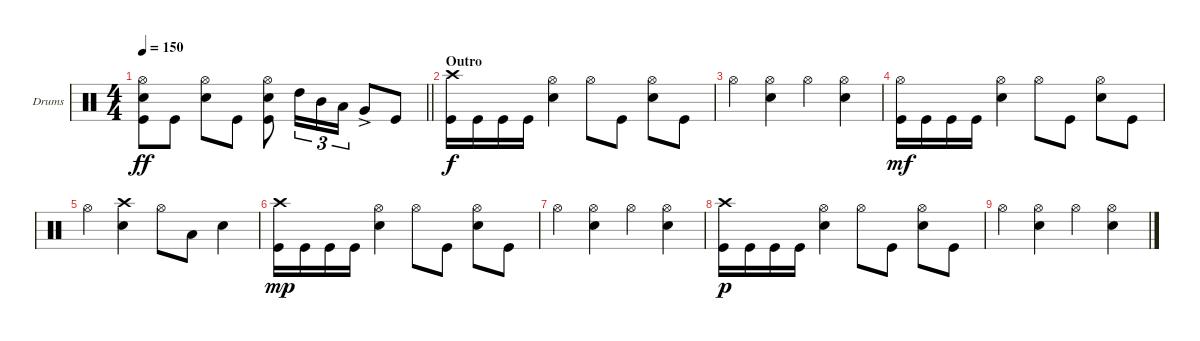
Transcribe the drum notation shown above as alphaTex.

\bracketExtendMode groupsimilarinstruments
\firstSystemTrackNameOrientation horizontal
\otherSystemsTrackNameOrientation horizontal
\track ("Drumkit" "Drums") {instrument percussion}
\staff {score}
\articulation defaults
\ts (4 4)
\tempo 150
\clef neutral
\barLineRight lightlight
\ks c
("Hi-Hat (open)" "Snare (hit) 2" "Kick (hit)").8{dy ff} "Kick (hit)".8 ("Hi-Hat (open)" "Snare (hit) 2").8 "Kick (hit)".8 ("Hi-Hat (open)" "Snare (hit) 2" "Kick (hit)").8 "High Tom (hit)".16{tu (3 2)} "Mid Tom (hit)".16{tu (3 2)} "Low Tom (hit)".16{tu (3 2)} "Very Low Tom (hit)"{ac}.8 "Kick (hit)".8 |
\section ("" "Outro")
("Crash high (hit)" "Kick (hit)").16{dy f} "Kick (hit)".16 "Kick (hit)".16 "Kick (hit)".16 ("Hi-Hat (open)" "Snare (hit) 2").4 "Hi-Hat (open)".8 "Kick (hit)".8 ("Hi-Hat (open)" "Snare (hit) 2").8 "Kick (hit)".8 |
"Hi-Hat (open)".4 ("Hi-Hat (open)" "Snare (hit) 2").4 "Hi-Hat (open)".4 ("Hi-Hat (open)" "Snare (hit) 2").4 |
("Hi-Hat (open)" "Kick (hit)").16{dy mf} "Kick (hit)".16 "Kick (hit)".16 "Kick (hit)".16 ("Hi-Hat (open)" "Snare (hit) 2").4 "Hi-Hat (open)".8 "Kick (hit)".8 ("Hi-Hat (open)" "Snare (hit) 2").8 "Kick (hit)".8 |
"Hi-Hat (open)".4 ("Crash high (hit)" "Snare (hit) 2").4 "Hi-Hat (open)".8 "Low Tom (hit)".8 "Snare (hit) 2".4 |
("Crash high (hit)" "Kick (hit)").16{dy mp} "Kick (hit)".16 "Kick (hit)".16 "Kick (hit)".16 ("Hi-Hat (open)" "Snare (hit) 2").4 "Hi-Hat (open)".8 "Kick (hit)".8 ("Hi-Hat (open)" "Snare (hit) 2").8 "Kick (hit)".8 |
"Hi-Hat (open)".4 ("Hi-Hat (open)" "Snare (hit) 2").4 "Hi-Hat (open)".4 ("Hi-Hat (open)" "Snare (hit) 2").4 |
("Crash high (hit)" "Kick (hit)").16{dy p} "Kick (hit)".16 "Kick (hit)".16 "Kick (hit)".16 ("Hi-Hat (open)" "Snare (hit) 2").4 "Hi-Hat (open)".8 "Kick (hit)".8 ("Hi-Hat (open)" "Snare (hit) 2").8 "Kick (hit)".8 |
"Hi-Hat (open)".4 ("Hi-Hat (open)" "Snare (hit) 2").4 "Hi-Hat (open)".4 ("Hi-Hat (open)" "Snare (hit) 2").4
